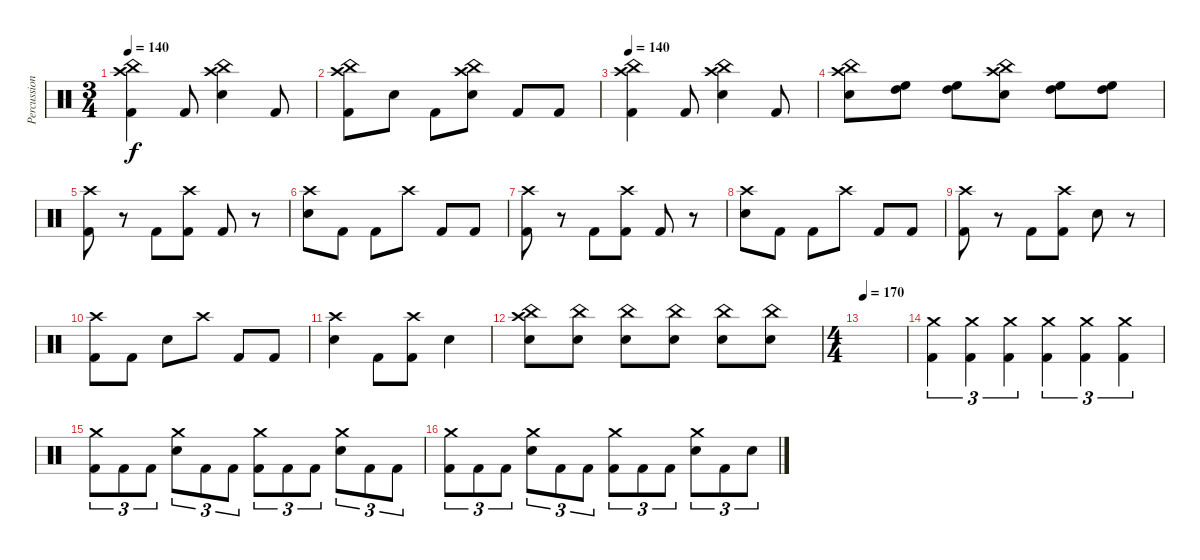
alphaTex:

\track ("Percussion" "Percussion") {instrument percussion}
\staff {score}
\articulation defaults
\ts (3 4)
\tempo 140
\clef neutral
\ks c
("Crash high (hit)" "China (hit)" "Kick (hit) 2").4{dy f} "Kick (hit) 2".8 ("Crash high (hit)" "China (hit)" "Electric Snare (hit)").4 "Kick (hit) 2".8 |
("Crash high (hit)" "China (hit)" "Kick (hit) 2").8 "Electric Snare (hit)".8 "Kick (hit) 2".8 ("Crash high (hit)" "China (hit)" "Electric Snare (hit)").8 "Kick (hit) 2".8 "Kick (hit) 2".8 |
\tempo 140
("Crash high (hit)" "China (hit)" "Kick (hit) 2").4 "Kick (hit) 2".8 ("Crash high (hit)" "China (hit)" "Electric Snare (hit)").4 "Kick (hit) 2".8 |
("Crash high (hit)" "China (hit)" "Electric Snare (hit)").8 ("High Floor Tom (hit)" "High Tom (hit)").8 ("High Floor Tom (hit)" "High Tom (hit)").8 ("Crash high (hit)" "China (hit)" "Electric Snare (hit)").8 ("High Floor Tom (hit)" "High Tom (hit)").8 ("High Floor Tom (hit)" "High Tom (hit)").8 |
("Crash high (hit)" "Kick (hit) 2").8 r.8 "Kick (hit) 2".8 ("Crash high (hit)" "Kick (hit) 2").8 "Kick (hit) 2".8 r.8 |
("Crash high (hit)" "Electric Snare (hit)").8 "Kick (hit) 2".8 "Kick (hit) 2".8 "Crash high (hit)".8 "Kick (hit) 2".8 "Kick (hit) 2".8 |
("Crash high (hit)" "Kick (hit) 2").8 r.8 "Kick (hit) 2".8 ("Crash high (hit)" "Kick (hit) 2").8 "Kick (hit) 2".8 r.8 |
("Crash high (hit)" "Electric Snare (hit)").8 "Kick (hit) 2".8 "Kick (hit) 2".8 "Crash high (hit)".8 "Kick (hit) 2".8 "Kick (hit) 2".8 |
("Crash high (hit)" "Kick (hit) 2").8 r.8 "Kick (hit) 2".8 ("Crash high (hit)" "Kick (hit) 2").8 "Electric Snare (hit)".8 r.8 |
("Crash high (hit)" "Kick (hit) 2").8 "Kick (hit) 2".8 "Electric Snare (hit)".8 "Crash high (hit)".8 "Kick (hit) 2".8 "Kick (hit) 2".8 |
("Crash high (hit)" "Electric Snare (hit)").4 "Kick (hit) 2".8 ("Crash high (hit)" "Kick (hit) 2").8 "Electric Snare (hit)".4 |
("Crash high (hit)" "China (hit)" "Electric Snare (hit)").8 ("China (hit)" "Electric Snare (hit)").8 ("China (hit)" "Electric Snare (hit)").8 ("China (hit)" "Electric Snare (hit)").8 ("China (hit)" "Electric Snare (hit)").8 ("China (hit)" "Electric Snare (hit)").8 |
\ts (4 4)
\tempo 170
|
("Crash medium (hit)" "Kick (hit) 2").4{tu (3 2)} ("Crash medium (hit)" "Kick (hit) 2").4{tu (3 2)} ("Crash medium (hit)" "Kick (hit) 2").4{tu (3 2)} ("Crash medium (hit)" "Kick (hit) 2").4{tu (3 2)} ("Crash medium (hit)" "Kick (hit) 2").4{tu (3 2)} ("Crash medium (hit)" "Kick (hit) 2").4{tu (3 2)} |
("Crash medium (hit)" "Kick (hit) 2").8{tu (3 2)} "Kick (hit) 2".8{tu (3 2)} "Kick (hit) 2".8{tu (3 2)} ("Crash medium (hit)" "Electric Snare (hit)").8{tu (3 2)} "Kick (hit) 2".8{tu (3 2)} "Kick (hit) 2".8{tu (3 2)} ("Crash medium (hit)" "Kick (hit) 2").8{tu (3 2)} "Kick (hit) 2".8{tu (3 2)} "Kick (hit) 2".8{tu (3 2)} ("Crash medium (hit)" "Electric Snare (hit)").8{tu (3 2)} "Kick (hit) 2".8{tu (3 2)} "Kick (hit) 2".8{tu (3 2)} |
("Crash medium (hit)" "Kick (hit) 2").8{tu (3 2)} "Kick (hit) 2".8{tu (3 2)} "Kick (hit) 2".8{tu (3 2)} ("Crash medium (hit)" "Electric Snare (hit)").8{tu (3 2)} "Kick (hit) 2".8{tu (3 2)} "Kick (hit) 2".8{tu (3 2)} ("Crash medium (hit)" "Kick (hit) 2").8{tu (3 2)} "Kick (hit) 2".8{tu (3 2)} "Kick (hit) 2".8{tu (3 2)} ("Crash medium (hit)" "Electric Snare (hit)").8{tu (3 2)} "Kick (hit) 2".8{tu (3 2)} "Electric Snare (hit)".8{tu (3 2)}
